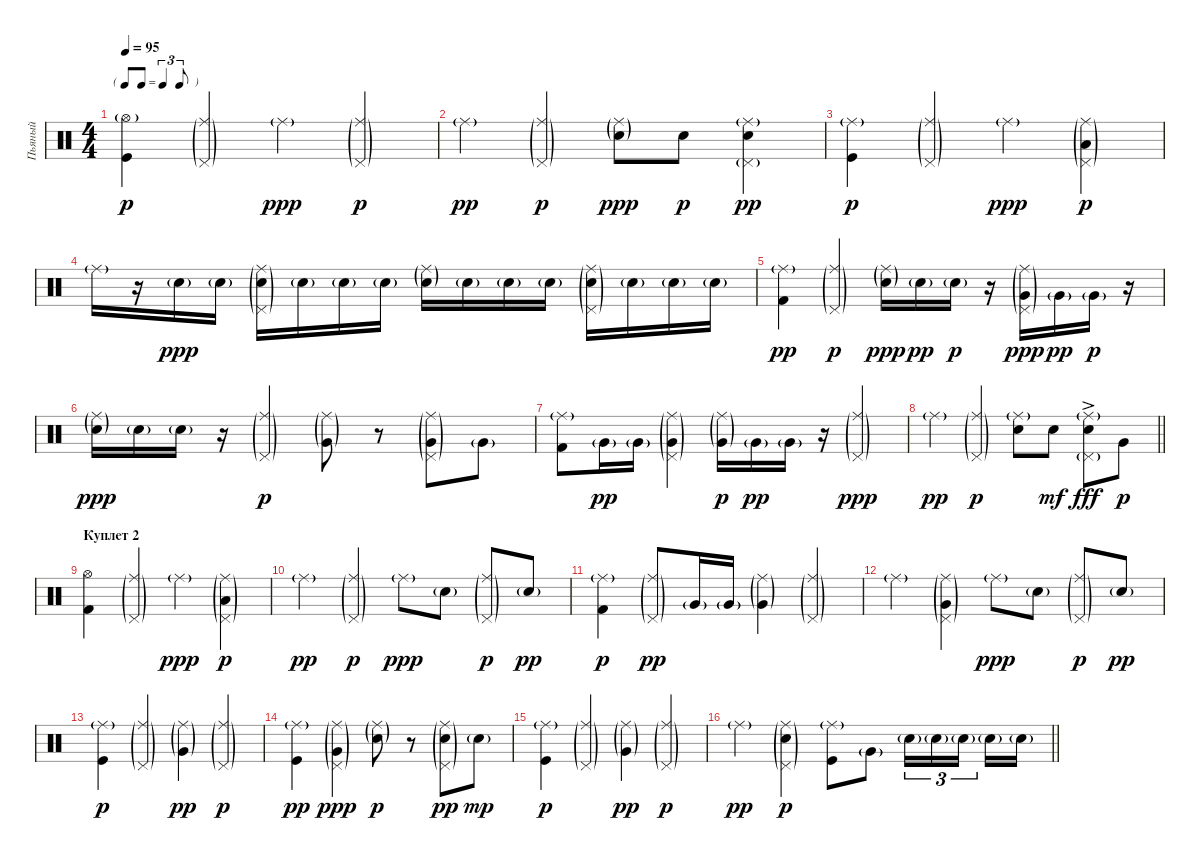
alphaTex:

\track ("Пьяный" "Пьяный") {instrument percussion}
\staff {score}
\articulation defaults
\ts (4 4)
\tf triplet8th
\tempo 95
\clef neutral
\ks c
("Hi-Hat (open)"{g} "Kick (hit)").4{dy p} ("Ride (middle)"{g} "Pedal Hi-Hat (hit)"{g}).4 "Ride (middle)"{g}.4{dy ppp} ("Ride (middle)"{g} "Pedal Hi-Hat (hit)"{g}).4{dy p} |
"Ride (middle)"{g}.4{dy pp} ("Ride (middle)"{g} "Pedal Hi-Hat (hit)"{g}).4{dy p} ("Ride (middle)"{g} "Snare (hit) 2"{g}).8{dy ppp} "Snare (hit) 2".8{dy p} ("Ride (middle)"{g} "Pedal Hi-Hat (hit)"{g} "Snare (hit) 2").4{dy pp} |
("Ride (middle)"{g} "Kick (hit)").4{dy p} ("Ride (middle)"{g} "Pedal Hi-Hat (hit)"{g}).4 "Ride (middle)"{g}.4{dy ppp} ("Ride (middle)"{g} "Pedal Hi-Hat (hit)"{g} "Low Tom (hit)"{g}).4{dy p} |
"Ride (middle)"{g}.16 r.16 "Snare (hit) 2"{g}.16{dy ppp} "Snare (hit) 2"{g}.16 ("Ride (middle)"{g} "Pedal Hi-Hat (hit)"{g} "Snare (hit) 2"{g}).16 "Snare (hit) 2"{g}.16 "Snare (hit) 2"{g}.16 "Snare (hit) 2"{g}.16 ("Ride (middle)"{g} "Snare (hit) 2"{g}).16 "Snare (hit) 2"{g}.16 "Snare (hit) 2"{g}.16 "Snare (hit) 2"{g}.16 ("Ride (middle)"{g} "Pedal Hi-Hat (hit)"{g} "Snare (hit) 2"{g}).16 "Snare (hit) 2"{g}.16 "Snare (hit) 2"{g}.16 "Snare (hit) 2"{g}.16 |
("Ride (middle)"{g} "Kick (hit) 2").4{dy pp} ("Ride (middle)"{g} "Pedal Hi-Hat (hit)"{g}).4{dy p} ("Ride (middle)"{g} "Snare (hit) 2"{g}).16{dy ppp} "Snare (hit) 2"{g}.16{dy pp} "Snare (hit) 2"{g}.16{dy p} r.16 ("Ride (middle)"{g} "Pedal Hi-Hat (hit)"{g} "Very Low Tom (hit)"{g}).16{dy ppp} "Very Low Tom (hit)"{g}.16{dy pp} "Very Low Tom (hit)"{g}.16{dy p} r.16 |
("Ride (middle)"{g} "Snare (hit) 2"{g}).16{dy ppp} "Snare (hit) 2"{g}.16 "Snare (hit) 2"{g}.16 r.16 ("Ride (middle)"{g} "Pedal Hi-Hat (hit)"{g}).4{dy p} ("Ride (middle)"{g} "Very Low Tom (hit)"{g}).8 r.8 ("Ride (middle)"{g} "Pedal Hi-Hat (hit)"{g} "Very Low Tom (hit)"{g}).8 "Very Low Tom (hit)"{g}.8 |
("Ride (middle)"{g} "Kick (hit) 2").8 "Very Low Tom (hit)"{g}.16{dy pp} "Very Low Tom (hit)"{g}.16 ("Ride (middle)"{g} "Pedal Hi-Hat (hit)"{g} "Very Low Tom (hit)"{g}).4 ("Ride (middle)"{g} "Very Low Tom (hit)"{g}).16{dy p} "Very Low Tom (hit)"{g}.16{dy pp} "Very Low Tom (hit)"{g}.16 r.16 ("Ride (middle)"{g} "Pedal Hi-Hat (hit)"{g}).4{dy ppp} |
\barLineRight lightlight "Ride (middle)"{g}.4{dy pp}
("Ride (middle)"{g} "Pedal Hi-Hat (hit)"{g}).4{dy p} ("Ride (middle)"{g} "Snare (hit) 2").8 "Snare (hit) 2".8{dy mf} ("Ride (middle)"{g} "Pedal Hi-Hat (hit)"{g} "Snare (hit) 2"{ac}).8{dy fff} "Very Low Tom (hit)".8{dy p} |
\section ("" "Куплет 2")
("Hi-Hat (open)" "Kick (hit) 2").4 ("Ride (middle)"{g} "Pedal Hi-Hat (hit)"{g}).4 "Ride (middle)"{g}.4{dy ppp} ("Ride (middle)"{g} "Pedal Hi-Hat (hit)"{g} "Low Tom (hit)"{g}).4{dy p} |
"Ride (middle)"{g}.4{dy pp} ("Ride (middle)"{g} "Pedal Hi-Hat (hit)"{g}).4{dy p} "Ride (middle)"{g}.8{dy ppp} "Snare (hit) 2"{g}.8 ("Ride (middle)"{g} "Pedal Hi-Hat (hit)"{g}).8{dy p} "Snare (hit) 2"{g}.8{dy pp} |
("Ride (middle)"{g} "Kick (hit) 2").4{dy p} ("Ride (middle)"{g} "Pedal Hi-Hat (hit)"{g}).8{dy pp} "Very Low Tom (hit)"{g}.16 "Very Low Tom (hit)"{g}.16 ("Ride (middle)"{g} "Very Low Tom (hit)"{g}).4 ("Ride (middle)"{g} "Pedal Hi-Hat (hit)"{g}).4 |
"Ride (middle)"{g}.4 ("Ride (middle)"{g} "Pedal Hi-Hat (hit)"{g} "Very Low Tom (hit)"{g}).4 "Ride (middle)"{g}.8{dy ppp} "Snare (hit) 2"{g}.8 ("Ride (middle)"{g} "Pedal Hi-Hat (hit)"{g}).8{dy p} "Snare (hit) 2"{g}.8{dy pp} |
("Ride (middle)"{g} "Kick (hit)").4{dy p} ("Ride (middle)"{g} "Pedal Hi-Hat (hit)"{g}).4 ("Ride (middle)"{g} "Very Low Tom (hit)"{g}).4{dy pp} ("Ride (middle)"{g} "Pedal Hi-Hat (hit)"{g}).4{dy p} |
("Ride (middle)"{g} "Kick (hit)").4{dy pp} ("Ride (middle)"{g} "Pedal Hi-Hat (hit)"{g} "Very Low Tom (hit)"{g}).4{dy ppp} ("Ride (middle)"{g} "Snare (hit) 2"{g}).8{dy p} r.8 ("Ride (middle)"{g} "Pedal Hi-Hat (hit)"{g} "Snare (hit) 2"{g}).8{dy pp} "Snare (hit) 2"{g}.8{dy mp} |
("Ride (middle)"{g} "Kick (hit)").4{dy p} ("Ride (middle)"{g} "Pedal Hi-Hat (hit)"{g}).4 ("Ride (middle)"{g} "Very Low Tom (hit)"{g}).4{dy pp} ("Ride (middle)"{g} "Pedal Hi-Hat (hit)"{g}).4{dy p} |
\barLineRight lightlight "Ride (middle)"{g}.4{dy pp}
("Ride (middle)"{g} "Pedal Hi-Hat (hit)"{g} "Snare (hit) 2"{g}).4{dy p} ("Ride (middle)"{g} "Kick (hit)").8 "Very Low Tom (hit)"{g}.8 "Snare (hit) 2"{g}.16{tu (3 2)} "Snare (hit) 2"{g}.16{tu (3 2)} "Snare (hit) 2"{g}.16{tu (3 2) beam splitsecondary} "Snare (hit) 2"{g}.16 "Snare (hit) 2"{g}.16
